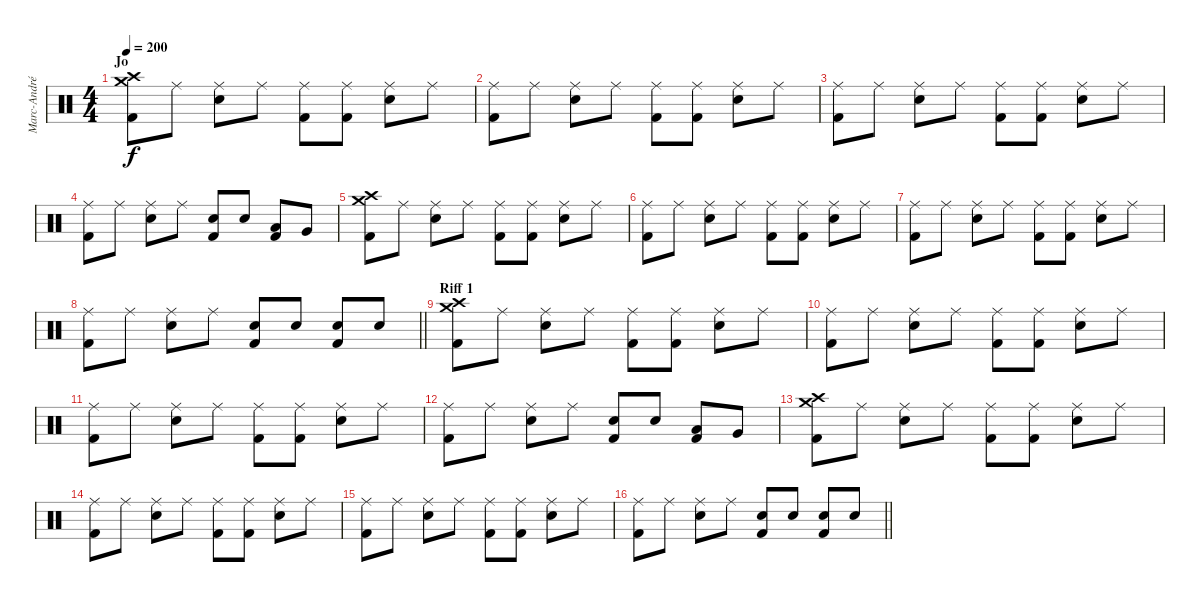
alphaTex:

\track ("Marc-André Barabé" "Marc-André") {instrument percussion}
\staff {score}
\articulation defaults
\ts (4 4)
\section ("" "Jo")
\tempo 200
\clef neutral
\ks c
("Crash high (hit)" "Crash medium (hit)" "Kick (hit) 2").8{dy f} "Ride (middle)".8 ("Ride (middle)" "Electric Snare (hit)").8 "Ride (middle)".8 ("Ride (middle)" "Kick (hit) 2").8 ("Ride (middle)" "Kick (hit) 2").8 ("Ride (middle)" "Electric Snare (hit)").8 "Ride (middle)".8 |
("Ride (middle)" "Kick (hit) 2").8 "Ride (middle)".8 ("Ride (middle)" "Electric Snare (hit)").8 "Ride (middle)".8 ("Ride (middle)" "Kick (hit) 2").8 ("Ride (middle)" "Kick (hit) 2").8 ("Ride (middle)" "Electric Snare (hit)").8 "Ride (middle)".8 |
("Ride (middle)" "Kick (hit) 2").8 "Ride (middle)".8 ("Ride (middle)" "Electric Snare (hit)").8 "Ride (middle)".8 ("Ride (middle)" "Kick (hit) 2").8 ("Ride (middle)" "Kick (hit) 2").8 ("Ride (middle)" "Electric Snare (hit)").8 "Ride (middle)".8 |
("Ride (middle)" "Kick (hit) 2").8 "Ride (middle)".8 ("Ride (middle)" "Electric Snare (hit)").8 "Ride (middle)".8 ("Electric Snare (hit)"{tr (4 32)} "Kick (hit) 2").8 "Electric Snare (hit)"{tr (4 32)}.8 ("Low Tom (hit)"{tr (4 32)} "Kick (hit) 2").8 "Very Low Tom (hit)"{tr (4 32)}.8 |
("Crash high (hit)" "Crash medium (hit)" "Kick (hit) 2").8 "Ride (middle)".8 ("Ride (middle)" "Electric Snare (hit)").8 "Ride (middle)".8 ("Ride (middle)" "Kick (hit) 2").8 ("Ride (middle)" "Kick (hit) 2").8 ("Ride (middle)" "Electric Snare (hit)").8 "Ride (middle)".8 |
("Ride (middle)" "Kick (hit) 2").8 "Ride (middle)".8 ("Ride (middle)" "Electric Snare (hit)").8 "Ride (middle)".8 ("Ride (middle)" "Kick (hit) 2").8 ("Ride (middle)" "Kick (hit) 2").8 ("Ride (middle)" "Electric Snare (hit)").8 "Ride (middle)".8 |
("Ride (middle)" "Kick (hit) 2").8 "Ride (middle)".8 ("Ride (middle)" "Electric Snare (hit)").8 "Ride (middle)".8 ("Ride (middle)" "Kick (hit) 2").8 ("Ride (middle)" "Kick (hit) 2").8 ("Ride (middle)" "Electric Snare (hit)").8 "Ride (middle)".8 |
\barLineRight lightlight
("Ride (middle)" "Kick (hit) 2").8 "Ride (middle)".8 ("Ride (middle)" "Electric Snare (hit)").8 "Ride (middle)".8 ("Electric Snare (hit)"{tr (4 32)} "Kick (hit) 2").8 "Electric Snare (hit)"{tr (4 32)}.8 ("Electric Snare (hit)"{tr (4 32)} "Kick (hit) 2").8 "Electric Snare (hit)"{tr (4 32)}.8 |
\section ("" "Riff 1")
("Crash high (hit)" "Crash medium (hit)" "Kick (hit) 2").8 "Ride (middle)".8 ("Ride (middle)" "Electric Snare (hit)").8 "Ride (middle)".8 ("Ride (middle)" "Kick (hit) 2").8 ("Ride (middle)" "Kick (hit) 2").8 ("Ride (middle)" "Electric Snare (hit)").8 "Ride (middle)".8 |
("Ride (middle)" "Kick (hit) 2").8 "Ride (middle)".8 ("Ride (middle)" "Electric Snare (hit)").8 "Ride (middle)".8 ("Ride (middle)" "Kick (hit) 2").8 ("Ride (middle)" "Kick (hit) 2").8 ("Ride (middle)" "Electric Snare (hit)").8 "Ride (middle)".8 |
("Ride (middle)" "Kick (hit) 2").8 "Ride (middle)".8 ("Ride (middle)" "Electric Snare (hit)").8 "Ride (middle)".8 ("Ride (middle)" "Kick (hit) 2").8 ("Ride (middle)" "Kick (hit) 2").8 ("Ride (middle)" "Electric Snare (hit)").8 "Ride (middle)".8 |
("Ride (middle)" "Kick (hit) 2").8 "Ride (middle)".8 ("Ride (middle)" "Electric Snare (hit)").8 "Ride (middle)".8 ("Electric Snare (hit)"{tr (4 32)} "Kick (hit) 2").8 "Electric Snare (hit)"{tr (4 32)}.8 ("Low Tom (hit)"{tr (4 32)} "Kick (hit) 2").8 "Very Low Tom (hit)"{tr (4 32)}.8 |
("Crash high (hit)" "Crash medium (hit)" "Kick (hit) 2").8 "Ride (middle)".8 ("Ride (middle)" "Electric Snare (hit)").8 "Ride (middle)".8 ("Ride (middle)" "Kick (hit) 2").8 ("Ride (middle)" "Kick (hit) 2").8 ("Ride (middle)" "Electric Snare (hit)").8 "Ride (middle)".8 |
("Ride (middle)" "Kick (hit) 2").8 "Ride (middle)".8 ("Ride (middle)" "Electric Snare (hit)").8 "Ride (middle)".8 ("Ride (middle)" "Kick (hit) 2").8 ("Ride (middle)" "Kick (hit) 2").8 ("Ride (middle)" "Electric Snare (hit)").8 "Ride (middle)".8 |
("Ride (middle)" "Kick (hit) 2").8 "Ride (middle)".8 ("Ride (middle)" "Electric Snare (hit)").8 "Ride (middle)".8 ("Ride (middle)" "Kick (hit) 2").8 ("Ride (middle)" "Kick (hit) 2").8 ("Ride (middle)" "Electric Snare (hit)").8 "Ride (middle)".8 |
\barLineRight lightlight
("Ride (middle)" "Kick (hit) 2").8 "Ride (middle)".8 ("Ride (middle)" "Electric Snare (hit)").8 "Ride (middle)".8 ("Electric Snare (hit)"{tr (4 32)} "Kick (hit) 2").8 "Electric Snare (hit)"{tr (4 32)}.8 ("Electric Snare (hit)"{tr (4 32)} "Kick (hit) 2").8 "Electric Snare (hit)"{tr (4 32)}.8
